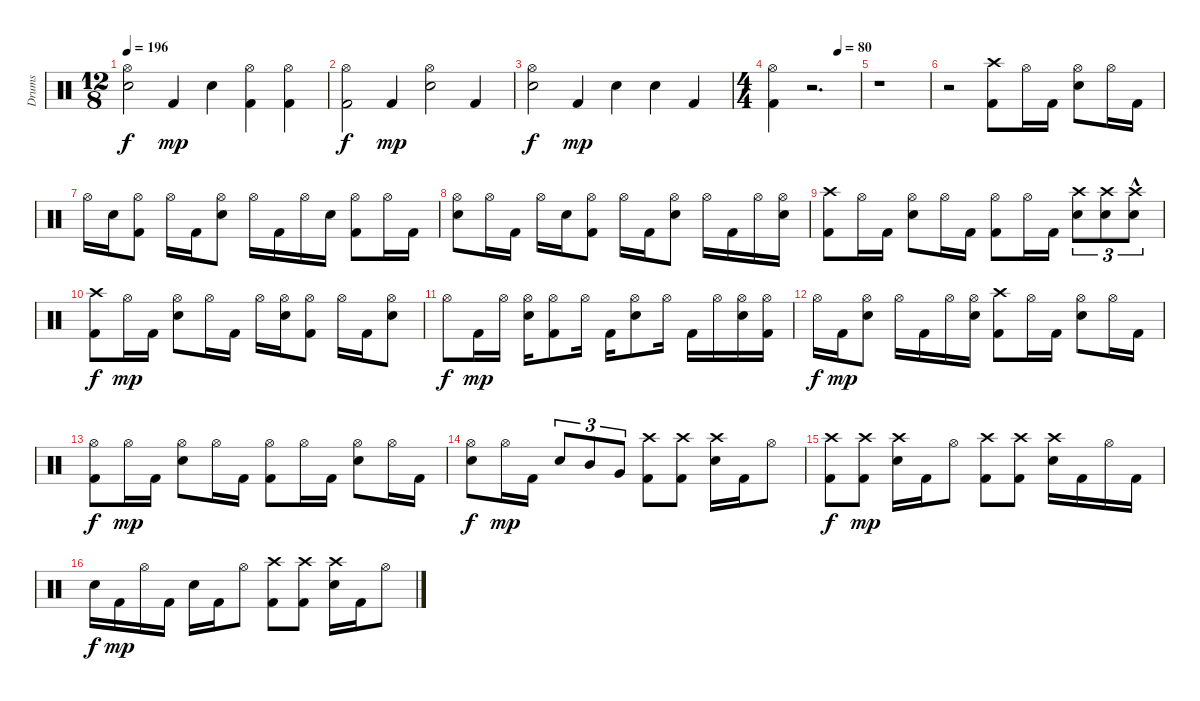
\track ("Drums" "Drums") {instrument percussion}
\staff {score}
\articulation defaults
\ts (12 8)
\tempo 196
\clef neutral
\ks c
("Electric Snare (hit)" "Hi-Hat (open)").2{dy f} "Kick (hit) 2".4{dy mp} "Electric Snare (hit)".4 ("Kick (hit) 2" "Hi-Hat (open)").4 ("Kick (hit) 2" "Hi-Hat (open)").4 |
("Kick (hit) 2" "Hi-Hat (open)").2{dy f} "Kick (hit) 2".4{dy mp} ("Electric Snare (hit)" "Hi-Hat (open)").2 "Kick (hit) 2".4 |
("Electric Snare (hit)" "Hi-Hat (open)").2{dy f} "Kick (hit) 2".4{dy mp} "Electric Snare (hit)".4 "Electric Snare (hit)".4 "Kick (hit) 2".4 |
\ts (4 4)
\tempo (80 0.75)
("Kick (hit) 2" "Hi-Hat (open)").4 r.2{d} |
r.1 |
r.2 ("Kick (hit) 2" "Crash high (hit)").8 "Hi-Hat (open)".16 "Kick (hit) 2".16 ("Electric Snare (hit)" "Hi-Hat (open)").8 "Hi-Hat (open)".16 "Kick (hit) 2".16 |
"Hi-Hat (open)".16 "Electric Snare (hit)".16 ("Kick (hit) 2" "Hi-Hat (open)").8 "Hi-Hat (open)".16 "Kick (hit) 2".16 ("Electric Snare (hit)" "Hi-Hat (open)").8 "Hi-Hat (open)".16 "Kick (hit) 2".16 "Hi-Hat (open)".16 "Electric Snare (hit)".16 ("Kick (hit) 2" "Hi-Hat (open)").8 "Hi-Hat (open)".16 "Kick (hit) 2".16 |
("Electric Snare (hit)" "Hi-Hat (open)").8 "Hi-Hat (open)".16 "Kick (hit) 2".16 "Hi-Hat (open)".16 "Electric Snare (hit)".16 ("Kick (hit) 2" "Hi-Hat (open)").8 "Hi-Hat (open)".16 "Kick (hit) 2".16 ("Electric Snare (hit)" "Hi-Hat (open)").8 "Hi-Hat (open)".16 "Kick (hit) 2".16 "Hi-Hat (open)".16 ("Electric Snare (hit)" "Hi-Hat (open)").16 |
("Kick (hit) 2" "Crash high (hit)").8 "Hi-Hat (open)".16 "Kick (hit) 2".16 ("Electric Snare (hit)" "Hi-Hat (open)").8 "Hi-Hat (open)".16 "Kick (hit) 2".16 ("Kick (hit) 2" "Hi-Hat (open)").8 "Hi-Hat (open)".16 "Kick (hit) 2".16 ("Electric Snare (hit)" "Crash high (hit)").8{tu (3 2)} ("Electric Snare (hit)" "Crash high (hit)").8{tu (3 2)} ("Electric Snare (hit)"{hac} "Crash high (hit)"{hac}).8{tu (3 2)} |
("Kick (hit) 2" "Crash high (hit)").8{dy f} "Hi-Hat (open)".16{dy mp} "Kick (hit) 2".16 ("Electric Snare (hit)" "Hi-Hat (open)").8 "Hi-Hat (open)".16 "Kick (hit) 2".16 "Hi-Hat (open)".16 ("Electric Snare (hit)" "Hi-Hat (open)").16 ("Kick (hit) 2" "Hi-Hat (open)").8 "Hi-Hat (open)".16 "Kick (hit) 2".16 ("Electric Snare (hit)" "Hi-Hat (open)").8 |
"Hi-Hat (open)".8{dy f} "Kick (hit) 2".16{dy mp} "Hi-Hat (open)".16 ("Electric Snare (hit)" "Hi-Hat (open)").16 ("Kick (hit) 2" "Hi-Hat (open)").8 "Hi-Hat (open)".16 "Kick (hit) 2".16 ("Electric Snare (hit)" "Hi-Hat (open)").8 "Hi-Hat (open)".16 "Kick (hit) 2".16 "Hi-Hat (open)".16 ("Electric Snare (hit)" "Hi-Hat (open)").16 ("Kick (hit) 2" "Hi-Hat (open)").16 |
"Hi-Hat (open)".16{dy f} "Kick (hit) 2".16{dy mp} ("Electric Snare (hit)" "Hi-Hat (open)").8 "Hi-Hat (open)".16 "Kick (hit) 2".16 "Hi-Hat (open)".16 ("Electric Snare (hit)" "Hi-Hat (open)").16 ("Kick (hit) 2" "Crash high (hit)").8 "Hi-Hat (open)".16 "Kick (hit) 2".16 ("Electric Snare (hit)" "Hi-Hat (open)").8 "Hi-Hat (open)".16 "Kick (hit) 2".16 |
("Kick (hit) 2" "Hi-Hat (open)").8{dy f} "Hi-Hat (open)".16{dy mp} "Kick (hit) 2".16 ("Electric Snare (hit)" "Hi-Hat (open)").8 "Hi-Hat (open)".16 "Kick (hit) 2".16 ("Kick (hit) 2" "Hi-Hat (open)").8 "Hi-Hat (open)".16 "Kick (hit) 2".16 ("Electric Snare (hit)" "Hi-Hat (open)").8 "Hi-Hat (open)".16 "Kick (hit) 2".16 |
("Electric Snare (hit)" "Hi-Hat (open)").8{dy f} "Hi-Hat (open)".16{dy mp} "Kick (hit) 2".16 "Electric Snare (hit)".8{tu (3 2)} "Mid Tom (hit)".8{tu (3 2)} "Very Low Tom (hit)".8{tu (3 2)} ("Kick (hit) 2" "Crash high (hit)").8 ("Kick (hit) 2" "Crash high (hit)").8 ("Electric Snare (hit)" "Crash high (hit)").16 "Kick (hit) 2".16 "Hi-Hat (open)".8 |
("Kick (hit) 2" "Crash high (hit)").8{dy f} ("Kick (hit) 2" "Crash high (hit)").8{dy mp} ("Electric Snare (hit)" "Crash high (hit)").16 "Kick (hit) 2".16 "Hi-Hat (open)".8 ("Kick (hit) 2" "Crash high (hit)").8 ("Kick (hit) 2" "Crash high (hit)").8 ("Electric Snare (hit)" "Crash high (hit)").16 "Kick (hit) 2".16 "Hi-Hat (open)".16 "Kick (hit) 2".16 |
"Electric Snare (hit)".16{dy f} "Kick (hit) 2".16{dy mp} "Hi-Hat (open)".16 "Kick (hit) 2".16 "Electric Snare (hit)".16 "Kick (hit) 2".16 "Hi-Hat (open)".8 ("Kick (hit) 2" "Crash high (hit)").8 ("Kick (hit) 2" "Crash high (hit)").8 ("Electric Snare (hit)" "Crash high (hit)").16 "Kick (hit) 2".16 "Hi-Hat (open)".8
